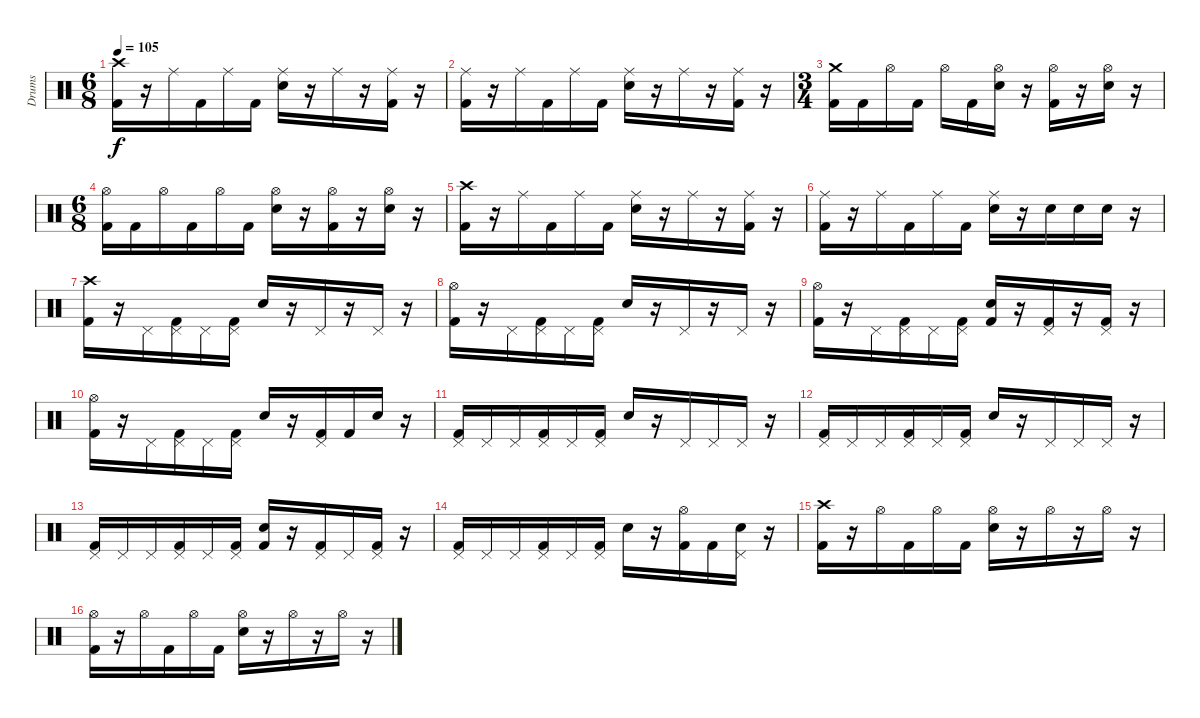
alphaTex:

\track ("Drums" "Drums") {instrument percussion}
\staff {score}
\articulation defaults
\ts (6 8)
\tempo 105
\clef neutral
\ks c
("Crash high (hit)" "Kick (hit) 2").16{dy f} r.16 "Ride (middle)".16 "Kick (hit) 2".16 "Ride (middle)".16 "Kick (hit) 2".16 ("Ride (middle)" "Electric Snare (hit)").16 r.16 "Ride (middle)".16 r.16 ("Ride (middle)" "Kick (hit) 2").16 r.16 |
("Ride (middle)" "Kick (hit) 2").16 r.16 "Ride (middle)".16 "Kick (hit) 2".16 "Ride (middle)".16 "Kick (hit) 2".16 ("Ride (middle)" "Electric Snare (hit)").16 r.16 "Ride (middle)".16 r.16 ("Ride (middle)" "Kick (hit) 2").16 r.16 |
\ts (3 4)
("Crash medium (hit)" "Kick (hit) 2").16 "Kick (hit) 2".16 "Hi-Hat (open)".16 "Kick (hit) 2".16 "Hi-Hat (open)".16 "Kick (hit) 2".16 ("Hi-Hat (open)" "Electric Snare (hit)").16 r.16 ("Hi-Hat (open)" "Kick (hit) 2").16 r.16 ("Hi-Hat (open)" "Electric Snare (hit)").16 r.16 |
\ts (6 8)
("Hi-Hat (open)" "Kick (hit) 2").16 "Kick (hit) 2".16 "Hi-Hat (open)".16 "Kick (hit) 2".16 "Hi-Hat (open)".16 "Kick (hit) 2".16 ("Hi-Hat (open)" "Electric Snare (hit)").16 r.16 ("Hi-Hat (open)" "Kick (hit) 2").16 r.16 ("Hi-Hat (open)" "Electric Snare (hit)").16 r.16 |
("Crash high (hit)" "Kick (hit) 2").16 r.16 "Ride (middle)".16 "Kick (hit) 2".16 "Ride (middle)".16 "Kick (hit) 2".16 ("Ride (middle)" "Electric Snare (hit)").16 r.16 "Ride (middle)".16 r.16 ("Ride (middle)" "Kick (hit) 2").16 r.16 |
("Ride (middle)" "Kick (hit) 2").16 r.16 "Ride (middle)".16 "Kick (hit) 2".16 "Ride (middle)".16 "Kick (hit) 2".16 ("Ride (middle)" "Electric Snare (hit)").16 r.16 "Electric Snare (hit)".16 "Electric Snare (hit)".16 "Electric Snare (hit)".16 r.16 |
("Crash high (hit)" "Kick (hit) 2").16 r.16 "Pedal Hi-Hat (hit)".16 ("Pedal Hi-Hat (hit)" "Kick (hit) 2").16 "Pedal Hi-Hat (hit)".16 ("Pedal Hi-Hat (hit)" "Kick (hit) 2").16 "Electric Snare (hit)".16 r.16 "Pedal Hi-Hat (hit)".16 r.16 "Pedal Hi-Hat (hit)".16 r.16 |
("Hi-Hat (open)" "Kick (hit) 2").16 r.16 "Pedal Hi-Hat (hit)".16 ("Pedal Hi-Hat (hit)" "Kick (hit) 2").16 "Pedal Hi-Hat (hit)".16 ("Pedal Hi-Hat (hit)" "Kick (hit) 2").16 "Electric Snare (hit)".16 r.16 "Pedal Hi-Hat (hit)".16 r.16 "Pedal Hi-Hat (hit)".16 r.16 |
("Hi-Hat (open)" "Kick (hit) 2").16 r.16 "Pedal Hi-Hat (hit)".16 ("Pedal Hi-Hat (hit)" "Kick (hit) 2").16 "Pedal Hi-Hat (hit)".16 ("Pedal Hi-Hat (hit)" "Kick (hit) 2").16 ("Electric Snare (hit)" "Kick (hit) 2").16 r.16 ("Pedal Hi-Hat (hit)" "Kick (hit) 2").16 r.16 ("Pedal Hi-Hat (hit)" "Kick (hit) 2").16 r.16 |
("Hi-Hat (open)" "Kick (hit) 2").16 r.16 "Pedal Hi-Hat (hit)".16 ("Pedal Hi-Hat (hit)" "Kick (hit) 2").16 "Pedal Hi-Hat (hit)".16 ("Pedal Hi-Hat (hit)" "Kick (hit) 2").16 "Electric Snare (hit)".16 r.16 ("Pedal Hi-Hat (hit)" "Kick (hit) 2").16 "Kick (hit) 2".16 "Electric Snare (hit)".16 r.16 |
("Pedal Hi-Hat (hit)" "Kick (hit) 2").16 "Pedal Hi-Hat (hit)".16 "Pedal Hi-Hat (hit)".16 ("Pedal Hi-Hat (hit)" "Kick (hit) 2").16 "Pedal Hi-Hat (hit)".16 ("Pedal Hi-Hat (hit)" "Kick (hit) 2").16 "Electric Snare (hit)".16 r.16 "Pedal Hi-Hat (hit)".16 "Pedal Hi-Hat (hit)".16 "Pedal Hi-Hat (hit)".16 r.16 |
("Pedal Hi-Hat (hit)" "Kick (hit) 2").16 "Pedal Hi-Hat (hit)".16 "Pedal Hi-Hat (hit)".16 ("Pedal Hi-Hat (hit)" "Kick (hit) 2").16 "Pedal Hi-Hat (hit)".16 ("Pedal Hi-Hat (hit)" "Kick (hit) 2").16 "Electric Snare (hit)".16 r.16 "Pedal Hi-Hat (hit)".16 "Pedal Hi-Hat (hit)".16 "Pedal Hi-Hat (hit)".16 r.16 |
("Pedal Hi-Hat (hit)" "Kick (hit) 2").16 "Pedal Hi-Hat (hit)".16 "Pedal Hi-Hat (hit)".16 ("Pedal Hi-Hat (hit)" "Kick (hit) 2").16 "Pedal Hi-Hat (hit)".16 ("Pedal Hi-Hat (hit)" "Kick (hit) 2").16 ("Electric Snare (hit)" "Kick (hit) 2").16 r.16 ("Pedal Hi-Hat (hit)" "Kick (hit) 2").16 "Pedal Hi-Hat (hit)".16 ("Pedal Hi-Hat (hit)" "Kick (hit) 2").16 r.16 |
("Pedal Hi-Hat (hit)" "Kick (hit) 2").16 "Pedal Hi-Hat (hit)".16 "Pedal Hi-Hat (hit)".16 ("Pedal Hi-Hat (hit)" "Kick (hit) 2").16 "Pedal Hi-Hat (hit)".16 ("Pedal Hi-Hat (hit)" "Kick (hit) 2").16 "Electric Snare (hit)".16 r.16 ("Hi-Hat (open)" "Kick (hit) 2").16 "Kick (hit) 2".16 ("Pedal Hi-Hat (hit)" "Electric Snare (hit)").16 r.16 |
("Crash high (hit)" "Kick (hit) 2").16 r.16 "Hi-Hat (open)".16 "Kick (hit) 2".16 "Hi-Hat (open)".16 "Kick (hit) 2".16 ("Hi-Hat (open)" "Electric Snare (hit)").16 r.16 "Hi-Hat (open)".16 r.16 "Hi-Hat (open)".16 r.16 |
("Hi-Hat (open)" "Kick (hit) 2").16 r.16 "Hi-Hat (open)".16 "Kick (hit) 2".16 "Hi-Hat (open)".16 "Kick (hit) 2".16 ("Hi-Hat (open)" "Electric Snare (hit)").16 r.16 "Hi-Hat (open)".16 r.16 "Hi-Hat (open)".16 r.16
